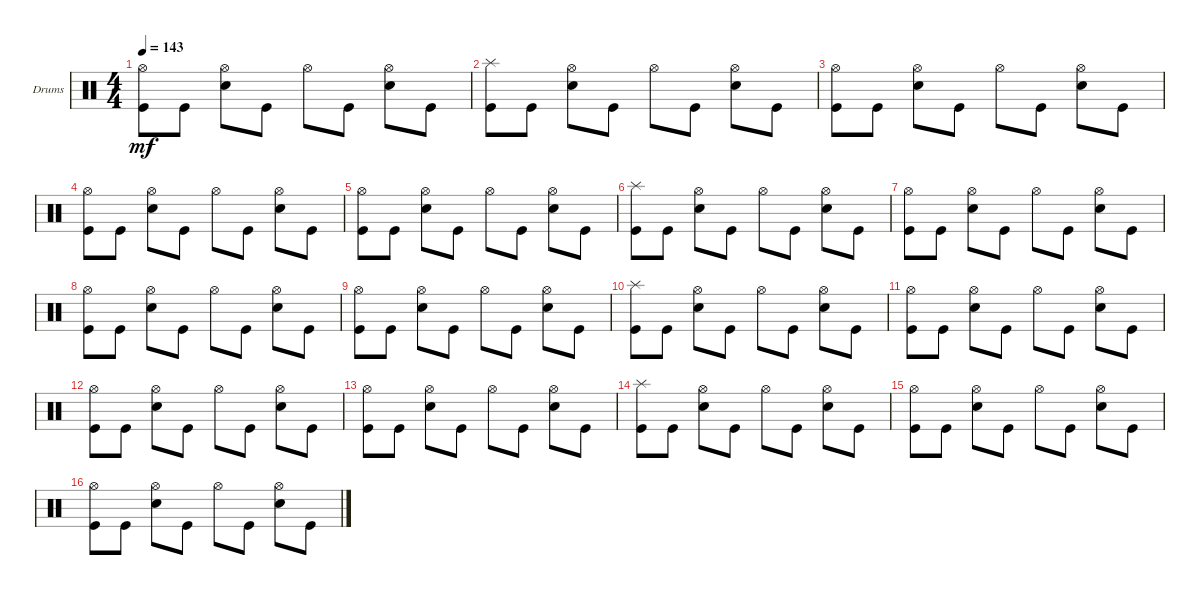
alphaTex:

\defaultSystemsLayout 4
\bracketExtendMode groupsimilarinstruments
\firstSystemTrackNameOrientation horizontal
\otherSystemsTrackNameOrientation horizontal
\track ("Drumkit" "Drums") {instrument percussion}
\staff {score}
\articulation defaults
\ts (4 4)
\tempo 143
\clef neutral
\ks c
("Kick (hit)" "Hi-Hat (open)").8{dy mf} "Kick (hit)".8 ("Snare (hit) 2" "Hi-Hat (open)").8 "Kick (hit)".8 "Hi-Hat (open)".8 "Kick (hit)".8 ("Snare (hit) 2" "Hi-Hat (open)").8 "Kick (hit)".8 |
("Splash (hit)" "Kick (hit)").8 "Kick (hit)".8 ("Snare (hit) 2" "Hi-Hat (open)").8 "Kick (hit)".8 "Hi-Hat (open)".8 "Kick (hit)".8 ("Snare (hit) 2" "Hi-Hat (open)").8 "Kick (hit)".8 |
("Kick (hit)" "Hi-Hat (open)").8 "Kick (hit)".8 ("Snare (hit) 2" "Hi-Hat (open)").8 "Kick (hit)".8 "Hi-Hat (open)".8 "Kick (hit)".8 ("Snare (hit) 2" "Hi-Hat (open)").8 "Kick (hit)".8 |
("Kick (hit)" "Hi-Hat (open)").8 "Kick (hit)".8 ("Snare (hit) 2" "Hi-Hat (open)").8 "Kick (hit)".8 "Hi-Hat (open)".8 "Kick (hit)".8 ("Snare (hit) 2" "Hi-Hat (open)").8 "Kick (hit)".8 |
("Kick (hit)" "Hi-Hat (open)").8 "Kick (hit)".8 ("Snare (hit) 2" "Hi-Hat (open)").8 "Kick (hit)".8 "Hi-Hat (open)".8 "Kick (hit)".8 ("Snare (hit) 2" "Hi-Hat (open)").8 "Kick (hit)".8 |
("Splash (hit)" "Kick (hit)").8 "Kick (hit)".8 ("Snare (hit) 2" "Hi-Hat (open)").8 "Kick (hit)".8 "Hi-Hat (open)".8 "Kick (hit)".8 ("Snare (hit) 2" "Hi-Hat (open)").8 "Kick (hit)".8 |
("Kick (hit)" "Hi-Hat (open)").8 "Kick (hit)".8 ("Snare (hit) 2" "Hi-Hat (open)").8 "Kick (hit)".8 "Hi-Hat (open)".8 "Kick (hit)".8 ("Snare (hit) 2" "Hi-Hat (open)").8 "Kick (hit)".8 |
("Kick (hit)" "Hi-Hat (open)").8 "Kick (hit)".8 ("Snare (hit) 2" "Hi-Hat (open)").8 "Kick (hit)".8 "Hi-Hat (open)".8 "Kick (hit)".8 ("Snare (hit) 2" "Hi-Hat (open)").8 "Kick (hit)".8 |
("Kick (hit)" "Hi-Hat (open)").8 "Kick (hit)".8 ("Snare (hit) 2" "Hi-Hat (open)").8 "Kick (hit)".8 "Hi-Hat (open)".8 "Kick (hit)".8 ("Snare (hit) 2" "Hi-Hat (open)").8 "Kick (hit)".8 |
("Splash (hit)" "Kick (hit)").8 "Kick (hit)".8 ("Snare (hit) 2" "Hi-Hat (open)").8 "Kick (hit)".8 "Hi-Hat (open)".8 "Kick (hit)".8 ("Snare (hit) 2" "Hi-Hat (open)").8 "Kick (hit)".8 |
("Kick (hit)" "Hi-Hat (open)").8 "Kick (hit)".8 ("Snare (hit) 2" "Hi-Hat (open)").8 "Kick (hit)".8 "Hi-Hat (open)".8 "Kick (hit)".8 ("Snare (hit) 2" "Hi-Hat (open)").8 "Kick (hit)".8 |
("Kick (hit)" "Hi-Hat (open)").8 "Kick (hit)".8 ("Snare (hit) 2" "Hi-Hat (open)").8 "Kick (hit)".8 "Hi-Hat (open)".8 "Kick (hit)".8 ("Snare (hit) 2" "Hi-Hat (open)").8 "Kick (hit)".8 |
("Kick (hit)" "Hi-Hat (open)").8 "Kick (hit)".8 ("Snare (hit) 2" "Hi-Hat (open)").8 "Kick (hit)".8 "Hi-Hat (open)".8 "Kick (hit)".8 ("Snare (hit) 2" "Hi-Hat (open)").8 "Kick (hit)".8 |
("Splash (hit)" "Kick (hit)").8 "Kick (hit)".8 ("Snare (hit) 2" "Hi-Hat (open)").8 "Kick (hit)".8 "Hi-Hat (open)".8 "Kick (hit)".8 ("Snare (hit) 2" "Hi-Hat (open)").8 "Kick (hit)".8 |
("Kick (hit)" "Hi-Hat (open)").8 "Kick (hit)".8 ("Snare (hit) 2" "Hi-Hat (open)").8 "Kick (hit)".8 "Hi-Hat (open)".8 "Kick (hit)".8 ("Snare (hit) 2" "Hi-Hat (open)").8 "Kick (hit)".8 |
("Kick (hit)" "Hi-Hat (open)").8 "Kick (hit)".8 ("Snare (hit) 2" "Hi-Hat (open)").8 "Kick (hit)".8 "Hi-Hat (open)".8 "Kick (hit)".8 ("Snare (hit) 2" "Hi-Hat (open)").8 "Kick (hit)".8
